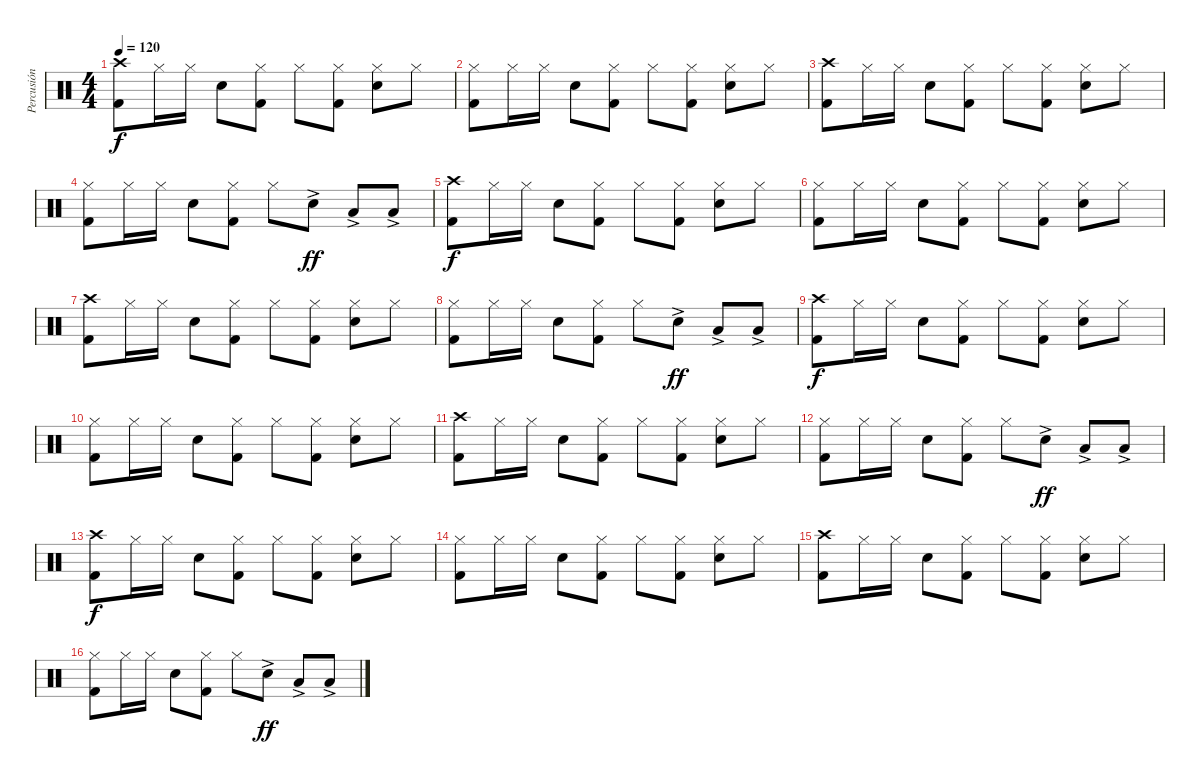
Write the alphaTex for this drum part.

\track ("Percusión" "Percusión") {instrument percussion}
\staff {score}
\articulation defaults
\ts (4 4)
\tempo 120
\clef neutral
\ks c
("Crash high (hit)" "Kick (hit) 2").8{dy f} "Hi-Hat (closed)".16 "Hi-Hat (closed)".16 "Snare (hit) 2".8 ("Hi-Hat (closed)" "Kick (hit) 2").8 "Hi-Hat (closed)".8 ("Hi-Hat (closed)" "Kick (hit) 2").8 ("Hi-Hat (closed)" "Snare (hit) 2").8 "Hi-Hat (closed)".8 |
("Hi-Hat (closed)" "Kick (hit) 2").8 "Hi-Hat (closed)".16 "Hi-Hat (closed)".16 "Snare (hit) 2".8 ("Hi-Hat (closed)" "Kick (hit) 2").8 "Hi-Hat (closed)".8 ("Hi-Hat (closed)" "Kick (hit) 2").8 ("Hi-Hat (closed)" "Snare (hit) 2").8 "Hi-Hat (closed)".8 |
("Crash high (hit)" "Kick (hit) 2").8 "Hi-Hat (closed)".16 "Hi-Hat (closed)".16 "Snare (hit) 2".8 ("Hi-Hat (closed)" "Kick (hit) 2").8 "Hi-Hat (closed)".8 ("Hi-Hat (closed)" "Kick (hit) 2").8 ("Hi-Hat (closed)" "Snare (hit) 2").8 "Hi-Hat (closed)".8 |
("Hi-Hat (closed)" "Kick (hit) 2").8 "Hi-Hat (closed)".16 "Hi-Hat (closed)".16 "Snare (hit) 2".8 ("Hi-Hat (closed)" "Kick (hit) 2").8 "Hi-Hat (closed)".8 "Snare (hit) 2"{ac}.8{dy ff} "Low Tom (hit)"{ac}.8 "Low Floor Tom (hit)"{ac}.8 |
("Crash high (hit)" "Kick (hit) 2").8{dy f} "Hi-Hat (closed)".16 "Hi-Hat (closed)".16 "Snare (hit) 2".8 ("Hi-Hat (closed)" "Kick (hit) 2").8 "Hi-Hat (closed)".8 ("Hi-Hat (closed)" "Kick (hit) 2").8 ("Hi-Hat (closed)" "Snare (hit) 2").8 "Hi-Hat (closed)".8 |
("Hi-Hat (closed)" "Kick (hit) 2").8 "Hi-Hat (closed)".16 "Hi-Hat (closed)".16 "Snare (hit) 2".8 ("Hi-Hat (closed)" "Kick (hit) 2").8 "Hi-Hat (closed)".8 ("Hi-Hat (closed)" "Kick (hit) 2").8 ("Hi-Hat (closed)" "Snare (hit) 2").8 "Hi-Hat (closed)".8 |
("Crash high (hit)" "Kick (hit) 2").8 "Hi-Hat (closed)".16 "Hi-Hat (closed)".16 "Snare (hit) 2".8 ("Hi-Hat (closed)" "Kick (hit) 2").8 "Hi-Hat (closed)".8 ("Hi-Hat (closed)" "Kick (hit) 2").8 ("Hi-Hat (closed)" "Snare (hit) 2").8 "Hi-Hat (closed)".8 |
("Hi-Hat (closed)" "Kick (hit) 2").8 "Hi-Hat (closed)".16 "Hi-Hat (closed)".16 "Snare (hit) 2".8 ("Hi-Hat (closed)" "Kick (hit) 2").8 "Hi-Hat (closed)".8 "Snare (hit) 2"{ac}.8{dy ff} "Low Tom (hit)"{ac}.8 "Low Floor Tom (hit)"{ac}.8 |
("Crash high (hit)" "Kick (hit) 2").8{dy f volume 13} "Hi-Hat (closed)".16 "Hi-Hat (closed)".16 "Snare (hit) 2".8 ("Hi-Hat (closed)" "Kick (hit) 2").8 "Hi-Hat (closed)".8 ("Hi-Hat (closed)" "Kick (hit) 2").8 ("Hi-Hat (closed)" "Snare (hit) 2").8 "Hi-Hat (closed)".8 |
("Hi-Hat (closed)" "Kick (hit) 2").8 "Hi-Hat (closed)".16 "Hi-Hat (closed)".16 "Snare (hit) 2".8 ("Hi-Hat (closed)" "Kick (hit) 2").8 "Hi-Hat (closed)".8 ("Hi-Hat (closed)" "Kick (hit) 2").8 ("Hi-Hat (closed)" "Snare (hit) 2").8 "Hi-Hat (closed)".8 |
("Crash high (hit)" "Kick (hit) 2").8{volume 10} "Hi-Hat (closed)".16 "Hi-Hat (closed)".16 "Snare (hit) 2".8 ("Hi-Hat (closed)" "Kick (hit) 2").8 "Hi-Hat (closed)".8 ("Hi-Hat (closed)" "Kick (hit) 2").8 ("Hi-Hat (closed)" "Snare (hit) 2").8 "Hi-Hat (closed)".8 |
("Hi-Hat (closed)" "Kick (hit) 2").8 "Hi-Hat (closed)".16 "Hi-Hat (closed)".16 "Snare (hit) 2".8 ("Hi-Hat (closed)" "Kick (hit) 2").8 "Hi-Hat (closed)".8 "Snare (hit) 2"{ac}.8{dy ff} "Low Tom (hit)"{ac}.8 "Low Floor Tom (hit)"{ac}.8 |
("Crash high (hit)" "Kick (hit) 2").8{dy f volume 8} "Hi-Hat (closed)".16 "Hi-Hat (closed)".16 "Snare (hit) 2".8 ("Hi-Hat (closed)" "Kick (hit) 2").8 "Hi-Hat (closed)".8 ("Hi-Hat (closed)" "Kick (hit) 2").8 ("Hi-Hat (closed)" "Snare (hit) 2").8 "Hi-Hat (closed)".8 |
("Hi-Hat (closed)" "Kick (hit) 2").8{volume 5} "Hi-Hat (closed)".16 "Hi-Hat (closed)".16 "Snare (hit) 2".8 ("Hi-Hat (closed)" "Kick (hit) 2").8 "Hi-Hat (closed)".8 ("Hi-Hat (closed)" "Kick (hit) 2").8 ("Hi-Hat (closed)" "Snare (hit) 2").8 "Hi-Hat (closed)".8 |
("Crash high (hit)" "Kick (hit) 2").8{volume 2} "Hi-Hat (closed)".16 "Hi-Hat (closed)".16 "Snare (hit) 2".8 ("Hi-Hat (closed)" "Kick (hit) 2").8 "Hi-Hat (closed)".8 ("Hi-Hat (closed)" "Kick (hit) 2").8 ("Hi-Hat (closed)" "Snare (hit) 2").8 "Hi-Hat (closed)".8 |
("Hi-Hat (closed)" "Kick (hit) 2").8{volume 0} "Hi-Hat (closed)".16 "Hi-Hat (closed)".16 "Snare (hit) 2".8 ("Hi-Hat (closed)" "Kick (hit) 2").8 "Hi-Hat (closed)".8 "Snare (hit) 2"{ac}.8{dy ff} "Low Tom (hit)"{ac}.8 "Low Floor Tom (hit)"{ac}.8
